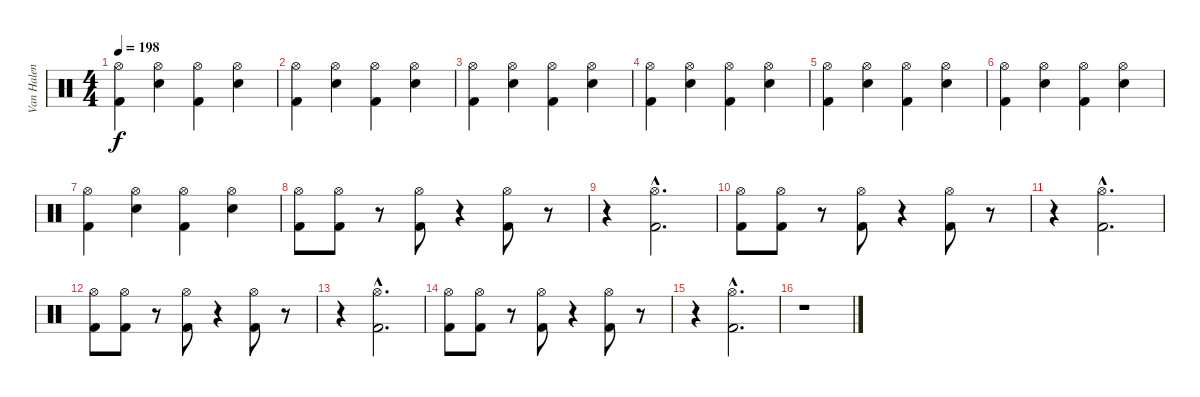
\track ("Van Halen" "Van Halen") {instrument percussion}
\staff {score}
\articulation defaults
\ts (4 4)
\tempo 198
\clef neutral
\ks c
("Kick (hit) 2" "Hi-Hat (open)").4{dy f} ("Snare (hit) 2" "Hi-Hat (open)").4 ("Kick (hit) 2" "Hi-Hat (open)").4 ("Snare (hit) 2" "Hi-Hat (open)").4 |
("Kick (hit) 2" "Hi-Hat (open)").4 ("Snare (hit) 2" "Hi-Hat (open)").4 ("Kick (hit) 2" "Hi-Hat (open)").4 ("Snare (hit) 2" "Hi-Hat (open)").4 |
("Kick (hit) 2" "Hi-Hat (open)").4 ("Snare (hit) 2" "Hi-Hat (open)").4 ("Kick (hit) 2" "Hi-Hat (open)").4 ("Snare (hit) 2" "Hi-Hat (open)").4 |
("Kick (hit) 2" "Hi-Hat (open)").4 ("Snare (hit) 2" "Hi-Hat (open)").4 ("Kick (hit) 2" "Hi-Hat (open)").4 ("Snare (hit) 2" "Hi-Hat (open)").4 |
("Kick (hit) 2" "Hi-Hat (open)").4 ("Snare (hit) 2" "Hi-Hat (open)").4 ("Kick (hit) 2" "Hi-Hat (open)").4 ("Snare (hit) 2" "Hi-Hat (open)").4 |
("Kick (hit) 2" "Hi-Hat (open)").4 ("Snare (hit) 2" "Hi-Hat (open)").4 ("Kick (hit) 2" "Hi-Hat (open)").4 ("Snare (hit) 2" "Hi-Hat (open)").4 |
("Kick (hit) 2" "Hi-Hat (open)").4 ("Snare (hit) 2" "Hi-Hat (open)").4 ("Kick (hit) 2" "Hi-Hat (open)").4 ("Snare (hit) 2" "Hi-Hat (open)").4 |
("Kick (hit) 2" "Hi-Hat (open)").8 ("Kick (hit) 2" "Hi-Hat (open)").8 r.8 ("Kick (hit) 2" "Hi-Hat (open)").8 r.4 ("Kick (hit) 2" "Hi-Hat (open)").8 r.8 |
r.4 ("Kick (hit) 2"{hac} "Hi-Hat (open)"{hac}).2{d} |
("Kick (hit) 2" "Hi-Hat (open)").8 ("Kick (hit) 2" "Hi-Hat (open)").8 r.8 ("Kick (hit) 2" "Hi-Hat (open)").8 r.4 ("Kick (hit) 2" "Hi-Hat (open)").8 r.8 |
r.4 ("Kick (hit) 2"{hac} "Hi-Hat (open)"{hac}).2{d} |
("Kick (hit) 2" "Hi-Hat (open)").8 ("Kick (hit) 2" "Hi-Hat (open)").8 r.8 ("Kick (hit) 2" "Hi-Hat (open)").8 r.4 ("Kick (hit) 2" "Hi-Hat (open)").8 r.8 |
r.4 ("Kick (hit) 2"{hac} "Hi-Hat (open)"{hac}).2{d} |
("Kick (hit) 2" "Hi-Hat (open)").8 ("Kick (hit) 2" "Hi-Hat (open)").8 r.8 ("Kick (hit) 2" "Hi-Hat (open)").8 r.4 ("Kick (hit) 2" "Hi-Hat (open)").8 r.8 |
r.4 ("Kick (hit) 2"{hac} "Hi-Hat (open)"{hac}).2{d} |
r.1
